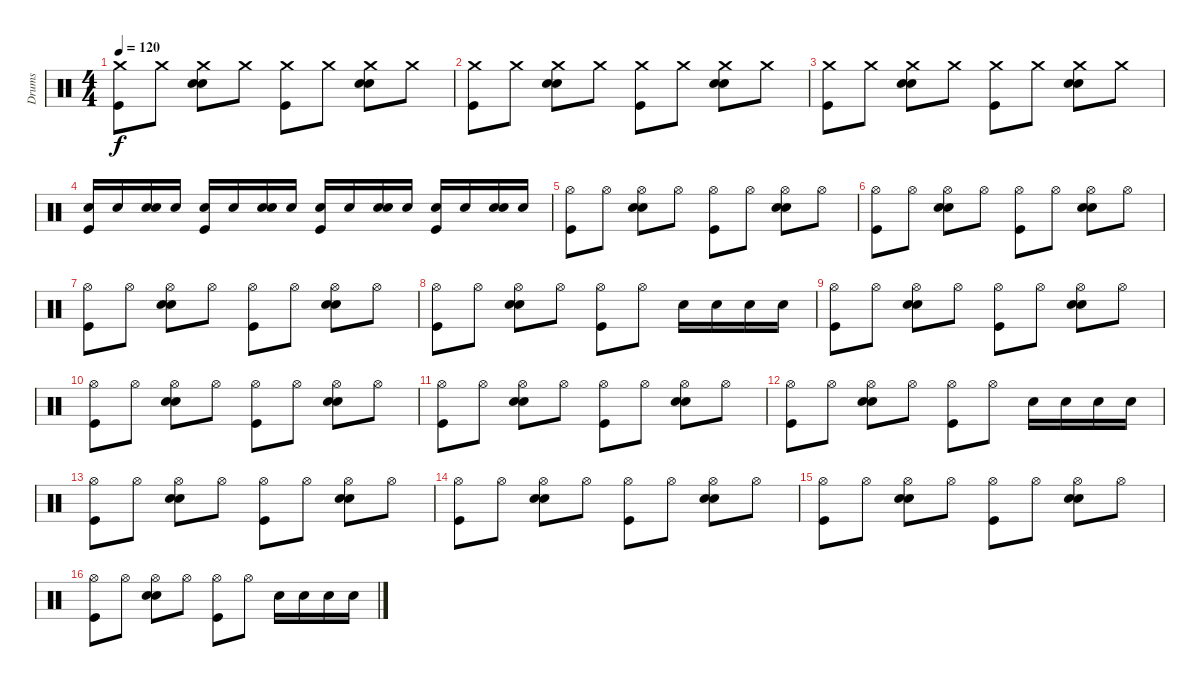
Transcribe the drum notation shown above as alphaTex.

\track ("Drums" "Drums") {instrument percussion}
\staff {score}
\articulation defaults
\ts (4 4)
\tempo 120
\clef neutral
\ks c
("Crash medium (hit)" "Kick (hit)").8{dy f} "Crash medium (hit)".8 ("Crash medium (hit)" "Electric Snare (hit)" "Snare (hit) 2").8 "Crash medium (hit)".8 ("Crash medium (hit)" "Kick (hit)").8 "Crash medium (hit)".8 ("Crash medium (hit)" "Electric Snare (hit)" "Snare (hit) 2").8 "Crash medium (hit)".8 |
("Crash medium (hit)" "Kick (hit)").8 "Crash medium (hit)".8 ("Crash medium (hit)" "Electric Snare (hit)" "Snare (hit) 2").8 "Crash medium (hit)".8 ("Crash medium (hit)" "Kick (hit)").8 "Crash medium (hit)".8 ("Crash medium (hit)" "Electric Snare (hit)" "Snare (hit) 2").8 "Crash medium (hit)".8 |
("Crash medium (hit)" "Kick (hit)").8 "Crash medium (hit)".8 ("Crash medium (hit)" "Electric Snare (hit)" "Snare (hit) 2").8 "Crash medium (hit)".8 ("Crash medium (hit)" "Kick (hit)").8 "Crash medium (hit)".8 ("Crash medium (hit)" "Electric Snare (hit)" "Snare (hit) 2").8 "Crash medium (hit)".8 |
("Snare (hit) 2" "Kick (hit)").16 "Snare (hit) 2".16 ("Electric Snare (hit)" "Snare (hit) 2").16 "Snare (hit) 2".16 ("Snare (hit) 2" "Kick (hit)").16 "Snare (hit) 2".16 ("Electric Snare (hit)" "Snare (hit) 2").16 "Snare (hit) 2".16 ("Snare (hit) 2" "Kick (hit)").16 "Snare (hit) 2".16 ("Electric Snare (hit)" "Snare (hit) 2").16 "Snare (hit) 2".16 ("Snare (hit) 2" "Kick (hit)").16 "Snare (hit) 2".16 ("Electric Snare (hit)" "Snare (hit) 2").16 "Snare (hit) 2".16 |
("Hi-Hat (open)" "Kick (hit)").8 "Hi-Hat (open)".8 ("Hi-Hat (open)" "Electric Snare (hit)" "Snare (hit) 2").8 "Hi-Hat (open)".8 ("Hi-Hat (open)" "Kick (hit)").8 "Hi-Hat (open)".8 ("Hi-Hat (open)" "Electric Snare (hit)" "Snare (hit) 2").8 "Hi-Hat (open)".8 |
("Hi-Hat (open)" "Kick (hit)").8 "Hi-Hat (open)".8 ("Hi-Hat (open)" "Electric Snare (hit)" "Snare (hit) 2").8 "Hi-Hat (open)".8 ("Hi-Hat (open)" "Kick (hit)").8 "Hi-Hat (open)".8 ("Hi-Hat (open)" "Electric Snare (hit)" "Snare (hit) 2").8 "Hi-Hat (open)".8 |
("Hi-Hat (open)" "Kick (hit)").8 "Hi-Hat (open)".8 ("Hi-Hat (open)" "Electric Snare (hit)" "Snare (hit) 2").8 "Hi-Hat (open)".8 ("Hi-Hat (open)" "Kick (hit)").8 "Hi-Hat (open)".8 ("Hi-Hat (open)" "Electric Snare (hit)" "Snare (hit) 2").8 "Hi-Hat (open)".8 |
("Hi-Hat (open)" "Kick (hit)").8 "Hi-Hat (open)".8 ("Hi-Hat (open)" "Electric Snare (hit)" "Snare (hit) 2").8 "Hi-Hat (open)".8 ("Hi-Hat (open)" "Kick (hit)").8 "Hi-Hat (open)".8 "Snare (hit) 2".16 "Snare (hit) 2".16 "Snare (hit) 2".16 "Snare (hit) 2".16 |
("Hi-Hat (open)" "Kick (hit)").8 "Hi-Hat (open)".8 ("Hi-Hat (open)" "Electric Snare (hit)" "Snare (hit) 2").8 "Hi-Hat (open)".8 ("Hi-Hat (open)" "Kick (hit)").8 "Hi-Hat (open)".8 ("Hi-Hat (open)" "Electric Snare (hit)" "Snare (hit) 2").8 "Hi-Hat (open)".8 |
("Hi-Hat (open)" "Kick (hit)").8 "Hi-Hat (open)".8 ("Hi-Hat (open)" "Electric Snare (hit)" "Snare (hit) 2").8 "Hi-Hat (open)".8 ("Hi-Hat (open)" "Kick (hit)").8 "Hi-Hat (open)".8 ("Hi-Hat (open)" "Electric Snare (hit)" "Snare (hit) 2").8 "Hi-Hat (open)".8 |
("Hi-Hat (open)" "Kick (hit)").8 "Hi-Hat (open)".8 ("Hi-Hat (open)" "Electric Snare (hit)" "Snare (hit) 2").8 "Hi-Hat (open)".8 ("Hi-Hat (open)" "Kick (hit)").8 "Hi-Hat (open)".8 ("Hi-Hat (open)" "Electric Snare (hit)" "Snare (hit) 2").8 "Hi-Hat (open)".8 |
("Hi-Hat (open)" "Kick (hit)").8 "Hi-Hat (open)".8 ("Hi-Hat (open)" "Electric Snare (hit)" "Snare (hit) 2").8 "Hi-Hat (open)".8 ("Hi-Hat (open)" "Kick (hit)").8 "Hi-Hat (open)".8 "Snare (hit) 2".16 "Snare (hit) 2".16 "Snare (hit) 2".16 "Snare (hit) 2".16 |
("Hi-Hat (open)" "Kick (hit)").8 "Hi-Hat (open)".8 ("Hi-Hat (open)" "Electric Snare (hit)" "Snare (hit) 2").8 "Hi-Hat (open)".8 ("Hi-Hat (open)" "Kick (hit)").8 "Hi-Hat (open)".8 ("Hi-Hat (open)" "Electric Snare (hit)" "Snare (hit) 2").8 "Hi-Hat (open)".8 |
("Hi-Hat (open)" "Kick (hit)").8 "Hi-Hat (open)".8 ("Hi-Hat (open)" "Electric Snare (hit)" "Snare (hit) 2").8 "Hi-Hat (open)".8 ("Hi-Hat (open)" "Kick (hit)").8 "Hi-Hat (open)".8 ("Hi-Hat (open)" "Electric Snare (hit)" "Snare (hit) 2").8 "Hi-Hat (open)".8 |
("Hi-Hat (open)" "Kick (hit)").8 "Hi-Hat (open)".8 ("Hi-Hat (open)" "Electric Snare (hit)" "Snare (hit) 2").8 "Hi-Hat (open)".8 ("Hi-Hat (open)" "Kick (hit)").8 "Hi-Hat (open)".8 ("Hi-Hat (open)" "Electric Snare (hit)" "Snare (hit) 2").8 "Hi-Hat (open)".8 |
("Hi-Hat (open)" "Kick (hit)").8 "Hi-Hat (open)".8 ("Hi-Hat (open)" "Electric Snare (hit)" "Snare (hit) 2").8 "Hi-Hat (open)".8 ("Hi-Hat (open)" "Kick (hit)").8 "Hi-Hat (open)".8 "Snare (hit) 2".16 "Snare (hit) 2".16 "Snare (hit) 2".16 "Snare (hit) 2".16
